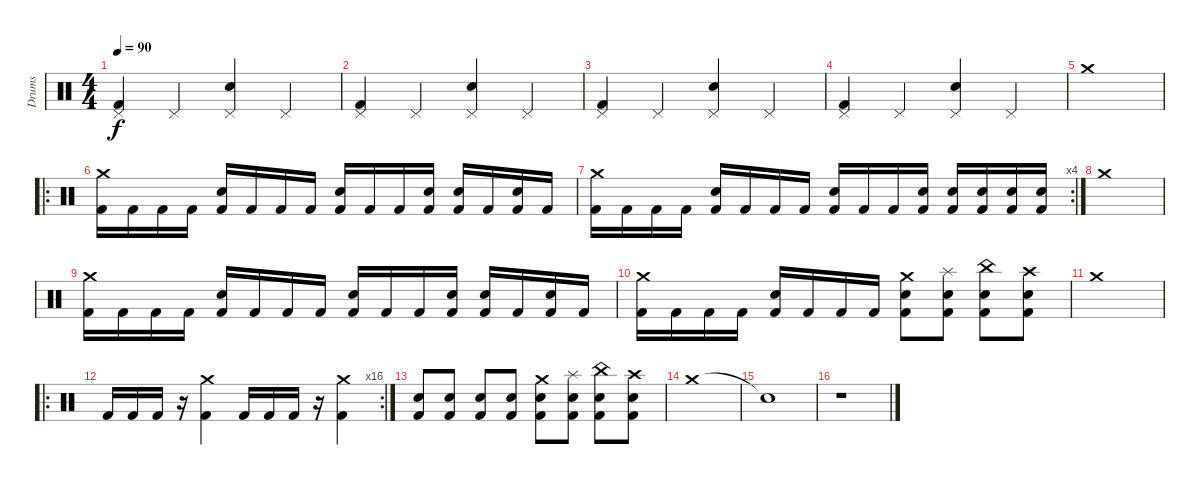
\track ("Drums" "Drums") {instrument percussion}
\staff {score}
\articulation defaults
\ts (4 4)
\tempo 90
\clef neutral
\ks c
("Pedal Hi-Hat (hit)" "Kick (hit) 2").4{dy f} "Pedal Hi-Hat (hit)".4 ("Pedal Hi-Hat (hit)" "Snare (hit) 2").4 "Pedal Hi-Hat (hit)".4 |
("Pedal Hi-Hat (hit)" "Kick (hit) 2").4 "Pedal Hi-Hat (hit)".4 ("Pedal Hi-Hat (hit)" "Snare (hit) 2").4 "Pedal Hi-Hat (hit)".4 |
("Pedal Hi-Hat (hit)" "Kick (hit) 2").4 "Pedal Hi-Hat (hit)".4 ("Pedal Hi-Hat (hit)" "Snare (hit) 2").4 "Pedal Hi-Hat (hit)".4 |
("Pedal Hi-Hat (hit)" "Kick (hit) 2").4 "Pedal Hi-Hat (hit)".4 ("Pedal Hi-Hat (hit)" "Snare (hit) 2").4 "Pedal Hi-Hat (hit)".4 |
"Crash medium (hit)".1 |
\ro
("Crash medium (hit)" "Kick (hit) 2").16 "Kick (hit) 2".16 "Kick (hit) 2".16 "Kick (hit) 2".16 ("Snare (hit) 2" "Kick (hit) 2").16 "Kick (hit) 2".16 "Kick (hit) 2".16 "Kick (hit) 2".16 ("Snare (hit) 2" "Kick (hit) 2").16 "Kick (hit) 2".16 "Kick (hit) 2".16 ("Snare (hit) 2" "Kick (hit) 2").16 ("Snare (hit) 2" "Kick (hit) 2").16 "Kick (hit) 2".16 ("Snare (hit) 2" "Kick (hit) 2").16 "Kick (hit) 2".16 |
\rc 4
("Crash medium (hit)" "Kick (hit) 2").16 "Kick (hit) 2".16 "Kick (hit) 2".16 "Kick (hit) 2".16 ("Snare (hit) 2" "Kick (hit) 2").16 "Kick (hit) 2".16 "Kick (hit) 2".16 "Kick (hit) 2".16 ("Snare (hit) 2" "Kick (hit) 2").16 "Kick (hit) 2".16 "Kick (hit) 2".16 ("Snare (hit) 2" "Kick (hit) 2").16 ("Snare (hit) 2" "Kick (hit) 2").16 ("Snare (hit) 2" "Kick (hit) 2").16 ("Snare (hit) 2" "Kick (hit) 2").16 ("Snare (hit) 2" "Kick (hit) 2").16 |
"Crash medium (hit)".1 |
("Crash medium (hit)" "Kick (hit) 2").16 "Kick (hit) 2".16 "Kick (hit) 2".16 "Kick (hit) 2".16 ("Snare (hit) 2" "Kick (hit) 2").16 "Kick (hit) 2".16 "Kick (hit) 2".16 "Kick (hit) 2".16 ("Snare (hit) 2" "Kick (hit) 2").16 "Kick (hit) 2".16 "Kick (hit) 2".16 ("Snare (hit) 2" "Kick (hit) 2").16 ("Snare (hit) 2" "Kick (hit) 2").16 "Kick (hit) 2".16 ("Snare (hit) 2" "Kick (hit) 2").16 "Kick (hit) 2".16 |
("Crash medium (hit)" "Kick (hit) 2").16 "Kick (hit) 2".16 "Kick (hit) 2".16 "Kick (hit) 2".16 ("Snare (hit) 2" "Kick (hit) 2").16 "Kick (hit) 2".16 "Kick (hit) 2".16 "Kick (hit) 2".16 ("Crash medium (hit)" "Snare (hit) 2" "Kick (hit) 2").8 ("Splash (hit)" "Snare (hit) 2" "Kick (hit) 2").8 ("China (hit)" "Snare (hit) 2" "Kick (hit) 2").8 ("Crash high (hit)" "Snare (hit) 2" "Kick (hit) 2").8 |
"Crash medium (hit)".1 |
\ro
\rc 16 "Kick (hit) 2".16 "Kick (hit) 2".16 "Kick (hit) 2".16
r.16 ("Crash medium (hit)" "Kick (hit) 2").4 "Kick (hit) 2".16 "Kick (hit) 2".16 "Kick (hit) 2".16 r.16 ("Crash medium (hit)" "Kick (hit) 2").4 |
("Snare (hit) 2" "Kick (hit) 2").8 ("Snare (hit) 2" "Kick (hit) 2").8 ("Snare (hit) 2" "Kick (hit) 2").8 ("Snare (hit) 2" "Kick (hit) 2").8 ("Crash medium (hit)" "Snare (hit) 2" "Kick (hit) 2").8 ("Splash (hit)" "Snare (hit) 2" "Kick (hit) 2").8 ("China (hit)" "Snare (hit) 2" "Kick (hit) 2").8 ("Crash high (hit)" "Snare (hit) 2" "Kick (hit) 2").8 |
"Crash medium (hit)".1 |
"Snare (hit)"{t}.1 |
r.1
